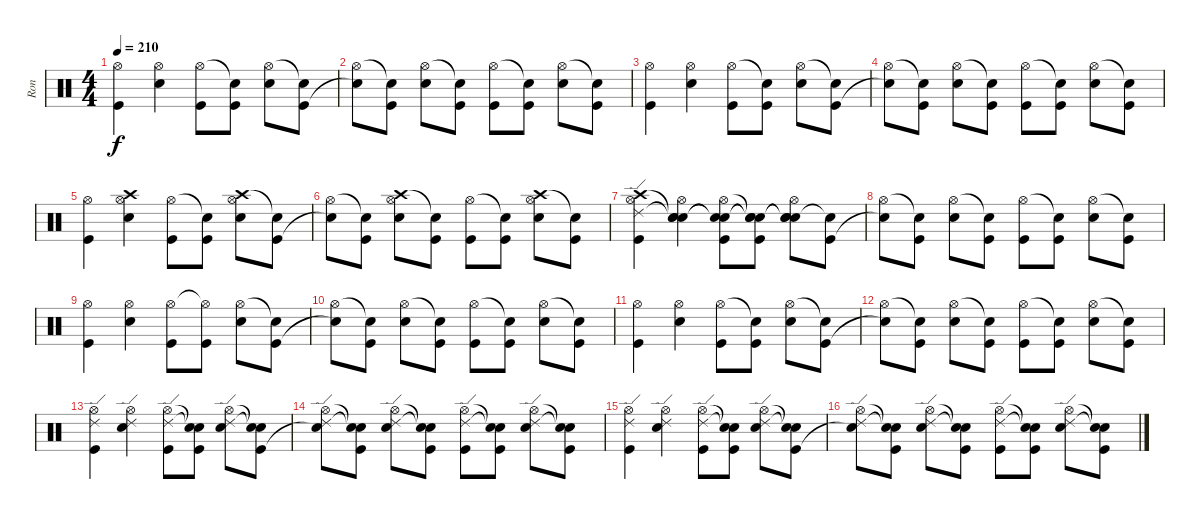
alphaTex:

\track ("Ron" "Ron") {instrument percussion}
\staff {score}
\articulation defaults
\ts (4 4)
\tempo 210
\clef neutral
\ks c
("Hi-Hat (open)" "Kick (hit)").4{dy f} ("Hi-Hat (open)" "Electric Snare (hit)").4 ("Hi-Hat (open)" "Kick (hit)").8 ("Snare (hit)"{t} "Kick (hit)").8 ("Hi-Hat (open)" "Electric Snare (hit)").8 ("Snare (hit)"{t} "Kick (hit)").8 |
("Hi-Hat (open)" "Snare (hit)"{t}).8 ("Snare (hit)"{t} "Kick (hit)").8 ("Hi-Hat (open)" "Electric Snare (hit)").8 ("Snare (hit)"{t} "Kick (hit)").8 ("Hi-Hat (open)" "Kick (hit)").8 ("Snare (hit)"{t} "Kick (hit)").8 ("Hi-Hat (open)" "Electric Snare (hit)").8 ("Snare (hit)"{t} "Kick (hit)").8 |
("Hi-Hat (open)" "Kick (hit)").4 ("Hi-Hat (open)" "Electric Snare (hit)").4 ("Hi-Hat (open)" "Kick (hit)").8 ("Snare (hit)"{t} "Kick (hit)").8 ("Hi-Hat (open)" "Electric Snare (hit)").8 ("Snare (hit)"{t} "Kick (hit)").8 |
("Hi-Hat (open)" "Snare (hit)"{t}).8 ("Snare (hit)"{t} "Kick (hit)").8 ("Hi-Hat (open)" "Electric Snare (hit)").8 ("Snare (hit)"{t} "Kick (hit)").8 ("Hi-Hat (open)" "Kick (hit)").8 ("Snare (hit)"{t} "Kick (hit)").8 ("Hi-Hat (open)" "Electric Snare (hit)").8 ("Snare (hit)"{t} "Kick (hit)").8 |
("Hi-Hat (open)" "Kick (hit)").4 ("Crash high (hit)" "Hi-Hat (open)" "Electric Snare (hit)").4 ("Hi-Hat (open)" "Kick (hit)").8 ("Snare (hit)"{t} "Kick (hit)").8 ("Crash high (hit)" "Hi-Hat (open)" "Electric Snare (hit)").8 ("Snare (hit)"{t} "Kick (hit)").8 |
("Hi-Hat (open)" "Snare (hit)"{t}).8 ("Snare (hit)"{t} "Kick (hit)").8 ("Crash high (hit)" "Hi-Hat (open)" "Electric Snare (hit)").8 ("Snare (hit)"{t} "Kick (hit)").8 ("Hi-Hat (open)" "Kick (hit)").8 ("Snare (hit)"{t} "Kick (hit)").8 ("Crash high (hit)" "Hi-Hat (open)" "Electric Snare (hit)").8 ("Snare (hit)"{t} "Kick (hit)").8 |
("Crash high (hit)" "Ride (edge) 2" "Hi-Hat (open)" "Kick (hit)").4 ("Snare (hit)"{t} "Snare (hit)"{t} "Hi-Hat (open)" "Electric Snare (hit)").4 ("Snare (hit)"{t} "Snare (hit)"{t} "Hi-Hat (open)" "Kick (hit)").8 ("Snare (hit)"{t} "Snare (hit)"{t} "Snare (hit)"{t} "Kick (hit)").8 ("Snare (hit)"{t} "Snare (hit)"{t} "Hi-Hat (open)" "Electric Snare (hit)").8 ("Snare (hit)"{t} "Kick (hit)").8 |
("Hi-Hat (open)" "Snare (hit)"{t}).8 ("Snare (hit)"{t} "Kick (hit)").8 ("Hi-Hat (open)" "Electric Snare (hit)").8 ("Snare (hit)"{t} "Kick (hit)").8 ("Hi-Hat (open)" "Kick (hit)").8 ("Snare (hit)"{t} "Kick (hit)").8 ("Hi-Hat (open)" "Electric Snare (hit)").8 ("Snare (hit)"{t} "Kick (hit)").8 |
("Hi-Hat (open)" "Kick (hit)").4 ("Hi-Hat (open)" "Electric Snare (hit)").4 ("Hi-Hat (open)" "Kick (hit)").8 ("Hi-Hat (open)"{t} "Kick (hit)").8 ("Hi-Hat (open)" "Electric Snare (hit)").8 ("Snare (hit)"{t} "Kick (hit)").8 |
("Hi-Hat (open)" "Snare (hit)"{t}).8 ("Snare (hit)"{t} "Kick (hit)").8 ("Hi-Hat (open)" "Electric Snare (hit)").8 ("Snare (hit)"{t} "Kick (hit)").8 ("Hi-Hat (open)" "Kick (hit)").8 ("Snare (hit)"{t} "Kick (hit)").8 ("Hi-Hat (open)" "Electric Snare (hit)").8 ("Snare (hit)"{t} "Kick (hit)").8 |
("Hi-Hat (open)" "Kick (hit)").4 ("Hi-Hat (open)" "Electric Snare (hit)").4 ("Hi-Hat (open)" "Kick (hit)").8 ("Snare (hit)"{t} "Kick (hit)").8 ("Hi-Hat (open)" "Electric Snare (hit)").8 ("Snare (hit)"{t} "Kick (hit)").8 |
("Hi-Hat (open)" "Snare (hit)"{t}).8 ("Snare (hit)"{t} "Kick (hit)").8 ("Hi-Hat (open)" "Electric Snare (hit)").8 ("Snare (hit)"{t} "Kick (hit)").8 ("Hi-Hat (open)" "Kick (hit)").8 ("Snare (hit)"{t} "Kick (hit)").8 ("Hi-Hat (open)" "Electric Snare (hit)").8 ("Snare (hit)"{t} "Kick (hit)").8 |
("Ride (edge) 2" "Hi-Hat (open)" "Kick (hit)").4 ("Ride (edge) 2" "Hi-Hat (open)" "Electric Snare (hit)").4 ("Ride (edge) 2" "Hi-Hat (open)" "Kick (hit)").8 ("Snare (hit)"{t} "Snare (hit)"{t} "Kick (hit)").8 ("Ride (edge) 2" "Hi-Hat (open)" "Electric Snare (hit)").8 ("Snare (hit)"{t} "Snare (hit)"{t} "Kick (hit)").8 |
("Ride (edge) 2" "Hi-Hat (open)" "Snare (hit)"{t}).8 ("Snare (hit)"{t} "Snare (hit)"{t} "Kick (hit)").8 ("Ride (edge) 2" "Hi-Hat (open)" "Electric Snare (hit)").8 ("Snare (hit)"{t} "Snare (hit)"{t} "Kick (hit)").8 ("Ride (edge) 2" "Hi-Hat (open)" "Kick (hit)").8 ("Snare (hit)"{t} "Snare (hit)"{t} "Kick (hit)").8 ("Ride (edge) 2" "Hi-Hat (open)" "Electric Snare (hit)").8 ("Snare (hit)"{t} "Snare (hit)"{t} "Kick (hit)").8 |
("Hi-Hat (open)" "Ride (edge) 2" "Kick (hit)").4 ("Hi-Hat (open)" "Ride (edge) 2" "Electric Snare (hit)").4 ("Hi-Hat (open)" "Ride (edge) 2" "Kick (hit)").8 ("Snare (hit)"{t} "Snare (hit)"{t} "Kick (hit)").8 ("Hi-Hat (open)" "Ride (edge) 2" "Electric Snare (hit)").8 ("Snare (hit)"{t} "Snare (hit)"{t} "Kick (hit)").8 |
("Hi-Hat (open)" "Ride (edge) 2" "Snare (hit)"{t}).8 ("Snare (hit)"{t} "Snare (hit)"{t} "Kick (hit)").8 ("Hi-Hat (open)" "Ride (edge) 2" "Electric Snare (hit)").8 ("Snare (hit)"{t} "Snare (hit)"{t} "Kick (hit)").8 ("Hi-Hat (open)" "Ride (edge) 2" "Kick (hit)").8 ("Snare (hit)"{t} "Snare (hit)"{t} "Kick (hit)").8 ("Hi-Hat (open)" "Ride (edge) 2" "Electric Snare (hit)").8 ("Snare (hit)"{t} "Snare (hit)"{t} "Kick (hit)").8
